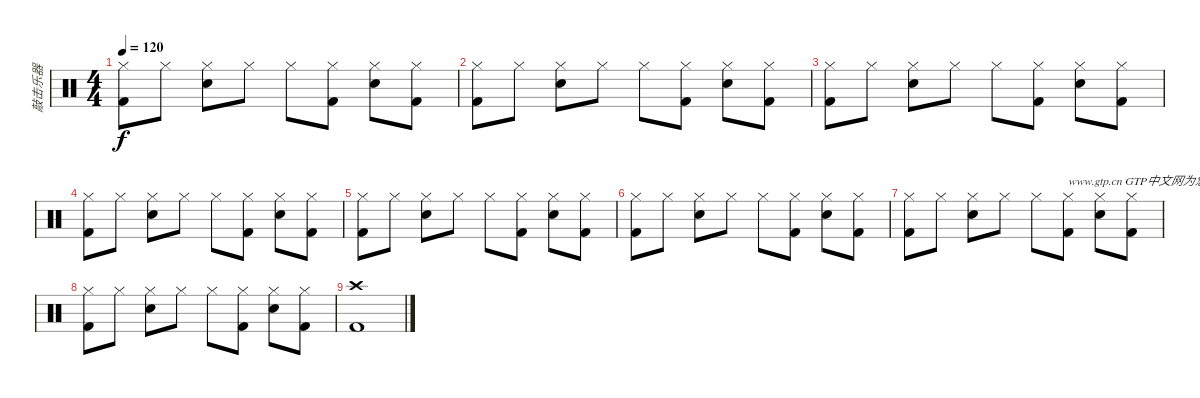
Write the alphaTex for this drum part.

\track ("敲击乐器" "敲击乐器") {instrument percussion}
\staff {score}
\articulation defaults
\ts (4 4)
\tempo 120
\clef neutral
\ks c
("Hi-Hat (closed)" "Kick (hit) 2").8{dy f} "Hi-Hat (closed)".8 ("Hi-Hat (closed)" "Snare (hit) 2").8 "Hi-Hat (closed)".8 "Hi-Hat (closed)".8 ("Hi-Hat (closed)" "Kick (hit) 2").8 ("Hi-Hat (closed)" "Snare (hit) 2").8 ("Hi-Hat (closed)" "Kick (hit) 2").8 |
("Hi-Hat (closed)" "Kick (hit) 2").8 "Hi-Hat (closed)".8 ("Hi-Hat (closed)" "Snare (hit) 2").8 "Hi-Hat (closed)".8 "Hi-Hat (closed)".8 ("Hi-Hat (closed)" "Kick (hit) 2").8 ("Hi-Hat (closed)" "Snare (hit) 2").8 ("Hi-Hat (closed)" "Kick (hit) 2").8 |
("Hi-Hat (closed)" "Kick (hit) 2").8 "Hi-Hat (closed)".8 ("Hi-Hat (closed)" "Snare (hit) 2").8 "Hi-Hat (closed)".8 "Hi-Hat (closed)".8 ("Hi-Hat (closed)" "Kick (hit) 2").8 ("Hi-Hat (closed)" "Snare (hit) 2").8 ("Hi-Hat (closed)" "Kick (hit) 2").8 |
("Hi-Hat (closed)" "Kick (hit) 2").8 "Hi-Hat (closed)".8 ("Hi-Hat (closed)" "Snare (hit) 2").8 "Hi-Hat (closed)".8 "Hi-Hat (closed)".8 ("Hi-Hat (closed)" "Kick (hit) 2").8 ("Hi-Hat (closed)" "Snare (hit) 2").8 ("Hi-Hat (closed)" "Kick (hit) 2").8 |
("Hi-Hat (closed)" "Kick (hit) 2").8 "Hi-Hat (closed)".8 ("Hi-Hat (closed)" "Snare (hit) 2").8 "Hi-Hat (closed)".8 "Hi-Hat (closed)".8 ("Hi-Hat (closed)" "Kick (hit) 2").8 ("Hi-Hat (closed)" "Snare (hit) 2").8 ("Hi-Hat (closed)" "Kick (hit) 2").8 |
("Hi-Hat (closed)" "Kick (hit) 2").8 "Hi-Hat (closed)".8 ("Hi-Hat (closed)" "Snare (hit) 2").8 "Hi-Hat (closed)".8 "Hi-Hat (closed)".8 ("Hi-Hat (closed)" "Kick (hit) 2").8 ("Hi-Hat (closed)" "Snare (hit) 2").8 ("Hi-Hat (closed)" "Kick (hit) 2").8 |
("Hi-Hat (closed)" "Kick (hit) 2").8 "Hi-Hat (closed)".8 ("Hi-Hat (closed)" "Snare (hit) 2").8 "Hi-Hat (closed)".8 "Hi-Hat (closed)".8 ("Hi-Hat (closed)" "Kick (hit) 2").8{txt "www.gtp.cn GTP中文网为您提供优秀的谱子"} ("Hi-Hat (closed)" "Snare (hit) 2").8 ("Hi-Hat (closed)" "Kick (hit) 2").8 |
("Hi-Hat (closed)" "Kick (hit) 2").8 "Hi-Hat (closed)".8 ("Hi-Hat (closed)" "Snare (hit) 2").8 "Hi-Hat (closed)".8 "Hi-Hat (closed)".8 ("Hi-Hat (closed)" "Kick (hit) 2").8 ("Hi-Hat (closed)" "Snare (hit) 2").8 ("Hi-Hat (closed)" "Kick (hit) 2").8 |
("Crash high (hit)" "Kick (hit) 2").1
